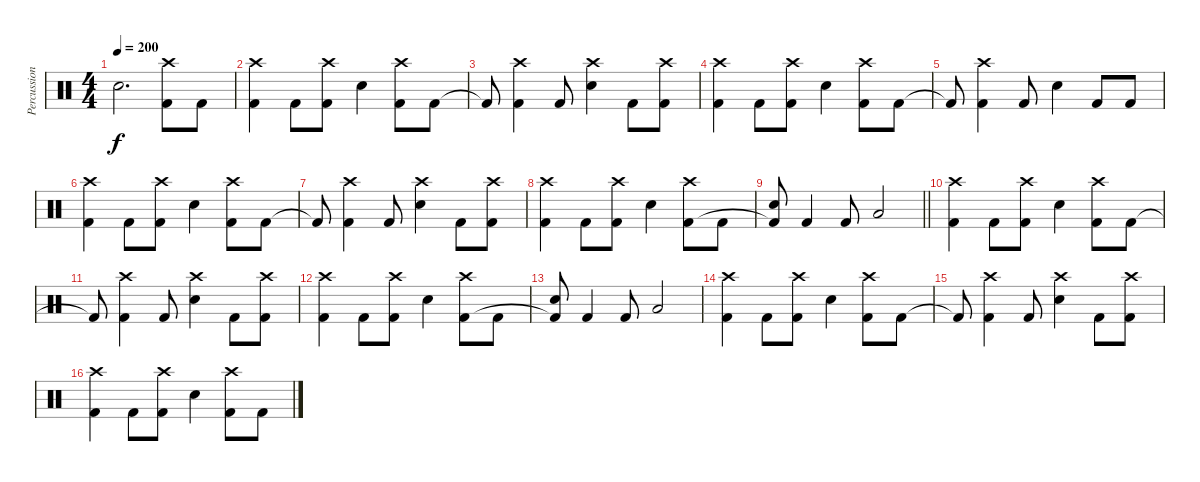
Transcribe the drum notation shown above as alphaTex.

\track ("Percussion" "Percussion") {instrument percussion}
\staff {score}
\articulation defaults
\ts (4 4)
\tempo 200
\clef neutral
\ks c "Snare (hit) 2".2{d dy f}
("Crash high (hit)" "Kick (hit) 2").8 "Kick (hit) 2".8 |
("Crash high (hit)" "Kick (hit) 2").4 "Kick (hit) 2".8 ("Crash high (hit)" "Kick (hit) 2").8 "Snare (hit) 2".4 ("Crash high (hit)" "Kick (hit) 2").8 "Kick (hit) 2".8 |
"Kick (hit) 2"{t}.8 ("Crash high (hit)" "Kick (hit) 2").4 "Kick (hit) 2".8 ("Crash high (hit)" "Snare (hit) 2").4 "Kick (hit) 2".8 ("Crash high (hit)" "Kick (hit) 2").8 |
("Crash high (hit)" "Kick (hit) 2").4 "Kick (hit) 2".8 ("Crash high (hit)" "Kick (hit) 2").8 "Snare (hit) 2".4 ("Crash high (hit)" "Kick (hit) 2").8 "Kick (hit) 2".8 |
"Kick (hit) 2"{t}.8 ("Crash high (hit)" "Kick (hit) 2").4 "Kick (hit) 2".8 "Snare (hit) 2".4 "Kick (hit) 2".8 "Kick (hit) 2".8 |
("Crash high (hit)" "Kick (hit) 2").4 "Kick (hit) 2".8 ("Crash high (hit)" "Kick (hit) 2").8 "Snare (hit) 2".4 ("Crash high (hit)" "Kick (hit) 2").8 "Kick (hit) 2".8 |
"Kick (hit) 2"{t}.8 ("Crash high (hit)" "Kick (hit) 2").4 "Kick (hit) 2".8 ("Crash high (hit)" "Snare (hit) 2").4 "Kick (hit) 2".8 ("Crash high (hit)" "Kick (hit) 2").8 |
("Crash high (hit)" "Kick (hit) 2").4 "Kick (hit) 2".8 ("Crash high (hit)" "Kick (hit) 2").8 "Snare (hit) 2".4 ("Crash high (hit)" "Kick (hit) 2").8 "Kick (hit) 2".8 |
\barLineRight lightlight
("Snare (hit) 2" "Kick (hit) 2"{t}).8 "Kick (hit) 2".4 "Kick (hit) 2".8 "Low Floor Tom (hit)".2 |
("Crash high (hit)" "Kick (hit) 2").4 "Kick (hit) 2".8 ("Crash high (hit)" "Kick (hit) 2").8 "Snare (hit) 2".4 ("Crash high (hit)" "Kick (hit) 2").8 "Kick (hit) 2".8 |
"Kick (hit) 2"{t}.8 ("Crash high (hit)" "Kick (hit) 2").4 "Kick (hit) 2".8 ("Crash high (hit)" "Snare (hit) 2").4 "Kick (hit) 2".8 ("Crash high (hit)" "Kick (hit) 2").8 |
("Crash high (hit)" "Kick (hit) 2").4 "Kick (hit) 2".8 ("Crash high (hit)" "Kick (hit) 2").8 "Snare (hit) 2".4 ("Crash high (hit)" "Kick (hit) 2").8 "Kick (hit) 2".8 |
("Snare (hit) 2" "Kick (hit) 2"{t}).8 "Kick (hit) 2".4 "Kick (hit) 2".8 "Low Floor Tom (hit)".2 |
("Crash high (hit)" "Kick (hit) 2").4 "Kick (hit) 2".8 ("Crash high (hit)" "Kick (hit) 2").8 "Snare (hit) 2".4 ("Crash high (hit)" "Kick (hit) 2").8 "Kick (hit) 2".8 |
"Kick (hit) 2"{t}.8 ("Crash high (hit)" "Kick (hit) 2").4 "Kick (hit) 2".8 ("Crash high (hit)" "Snare (hit) 2").4 "Kick (hit) 2".8 ("Crash high (hit)" "Kick (hit) 2").8 |
("Crash high (hit)" "Kick (hit) 2").4 "Kick (hit) 2".8 ("Crash high (hit)" "Kick (hit) 2").8 "Snare (hit) 2".4 ("Crash high (hit)" "Kick (hit) 2").8 "Kick (hit) 2".8
